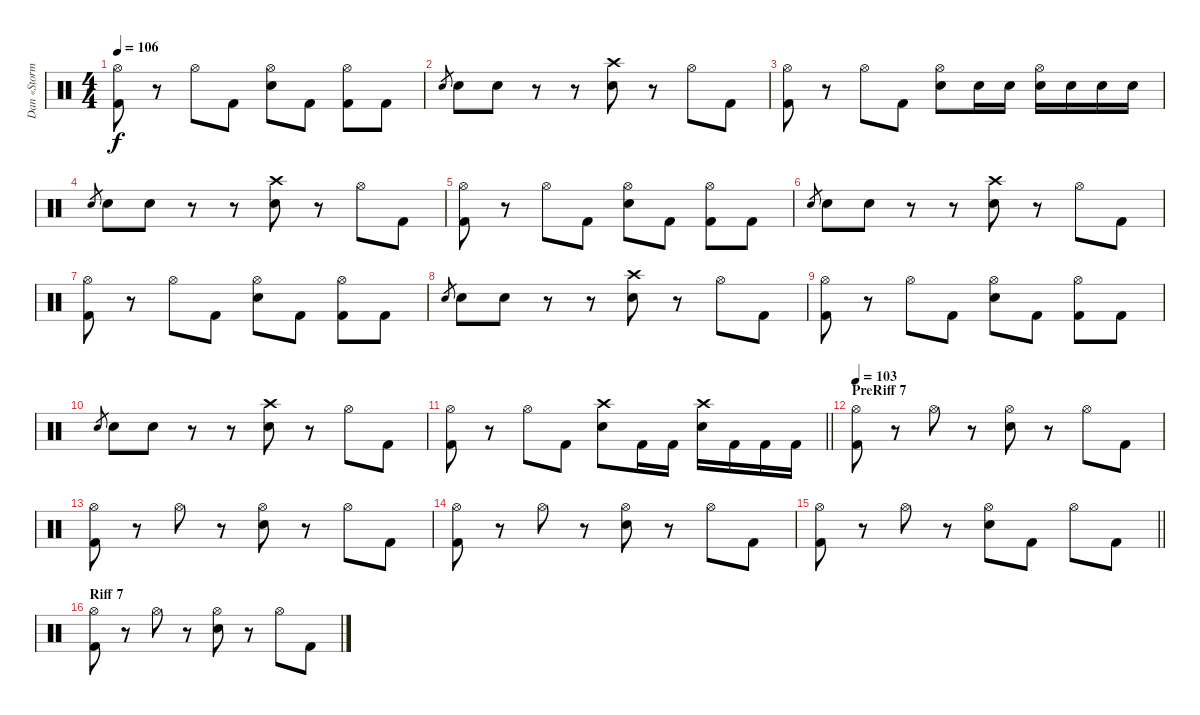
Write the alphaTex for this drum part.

\track ("Dan «Storm» Mullins" "Dan «Storm") {instrument percussion}
\staff {score}
\articulation defaults
\ts (4 4)
\tempo 106
\clef neutral
\ks c
("Hi-Hat (open)" "Kick (hit) 2").8{dy f} r.8 "Hi-Hat (open)".8 "Kick (hit) 2".8 ("Hi-Hat (open)" "Electric Snare (hit)").8 "Kick (hit) 2".8 ("Hi-Hat (open)" "Kick (hit) 2").8 "Kick (hit) 2".8 |
"Electric Snare (hit)".8{gr} "Electric Snare (hit)".8 "Electric Snare (hit)".8 r.8 r.8 ("Crash high (hit)" "Electric Snare (hit)").8 r.8 "Hi-Hat (open)".8 "Kick (hit) 2".8 |
("Hi-Hat (open)" "Kick (hit) 2").8 r.8 "Hi-Hat (open)".8 "Kick (hit) 2".8 ("Hi-Hat (open)" "Electric Snare (hit)").8 "Electric Snare (hit)".16 "Electric Snare (hit)".16 ("Hi-Hat (open)" "Electric Snare (hit)").16 "Electric Snare (hit)".16 "Electric Snare (hit)".16 "Electric Snare (hit)".16 |
"Electric Snare (hit)".8{gr} "Electric Snare (hit)".8 "Electric Snare (hit)".8 r.8 r.8 ("Crash high (hit)" "Electric Snare (hit)").8 r.8 "Hi-Hat (open)".8 "Kick (hit) 2".8 |
("Hi-Hat (open)" "Kick (hit) 2").8 r.8 "Hi-Hat (open)".8 "Kick (hit) 2".8 ("Hi-Hat (open)" "Electric Snare (hit)").8 "Kick (hit) 2".8 ("Hi-Hat (open)" "Kick (hit) 2").8 "Kick (hit) 2".8 |
"Electric Snare (hit)".8{gr} "Electric Snare (hit)".8 "Electric Snare (hit)".8 r.8 r.8 ("Crash high (hit)" "Electric Snare (hit)").8 r.8 "Hi-Hat (open)".8 "Kick (hit) 2".8 |
("Hi-Hat (open)" "Kick (hit) 2").8 r.8 "Hi-Hat (open)".8 "Kick (hit) 2".8 ("Hi-Hat (open)" "Electric Snare (hit)").8 "Kick (hit) 2".8 ("Hi-Hat (open)" "Kick (hit) 2").8 "Kick (hit) 2".8 |
"Electric Snare (hit)".8{gr} "Electric Snare (hit)".8 "Electric Snare (hit)".8 r.8 r.8 ("Crash high (hit)" "Electric Snare (hit)").8 r.8 "Hi-Hat (open)".8 "Kick (hit) 2".8 |
("Hi-Hat (open)" "Kick (hit) 2").8 r.8 "Hi-Hat (open)".8 "Kick (hit) 2".8 ("Hi-Hat (open)" "Electric Snare (hit)").8 "Kick (hit) 2".8 ("Hi-Hat (open)" "Kick (hit) 2").8 "Kick (hit) 2".8 |
"Electric Snare (hit)".8{gr} "Electric Snare (hit)".8 "Electric Snare (hit)".8 r.8 r.8 ("Crash high (hit)" "Electric Snare (hit)").8 r.8 "Hi-Hat (open)".8 "Kick (hit) 2".8 |
\barLineRight lightlight
("Hi-Hat (open)" "Kick (hit) 2").8 r.8 "Hi-Hat (open)".8 "Kick (hit) 2".8 ("Crash high (hit)" "Electric Snare (hit)").8 "Kick (hit) 2".16 "Kick (hit) 2".16 ("Crash high (hit)" "Electric Snare (hit)").16 "Kick (hit) 2".16 "Kick (hit) 2".16 "Kick (hit) 2".16 |
\section ("" "PreRiff 7")
\tempo 103
("Hi-Hat (open)" "Kick (hit) 2").8 r.8 "Hi-Hat (open)".8 r.8 ("Hi-Hat (open)" "Electric Snare (hit)").8 r.8 "Hi-Hat (open)".8 "Kick (hit) 2".8 |
("Hi-Hat (open)" "Kick (hit) 2").8 r.8 "Hi-Hat (open)".8 r.8 ("Hi-Hat (open)" "Electric Snare (hit)").8 r.8 "Hi-Hat (open)".8 "Kick (hit) 2".8 |
("Hi-Hat (open)" "Kick (hit) 2").8 r.8 "Hi-Hat (open)".8 r.8 ("Hi-Hat (open)" "Electric Snare (hit)").8 r.8 "Hi-Hat (open)".8 "Kick (hit) 2".8 |
\barLineRight lightlight
("Hi-Hat (open)" "Kick (hit) 2").8 r.8 "Hi-Hat (open)".8 r.8 ("Hi-Hat (open)" "Electric Snare (hit)").8 "Kick (hit) 2".8 "Hi-Hat (open)".8 "Kick (hit) 2".8 |
\section ("" "Riff 7")
("Hi-Hat (open)" "Kick (hit) 2").8 r.8 "Hi-Hat (open)".8 r.8 ("Hi-Hat (open)" "Electric Snare (hit)").8 r.8 "Hi-Hat (open)".8 "Kick (hit) 2".8
